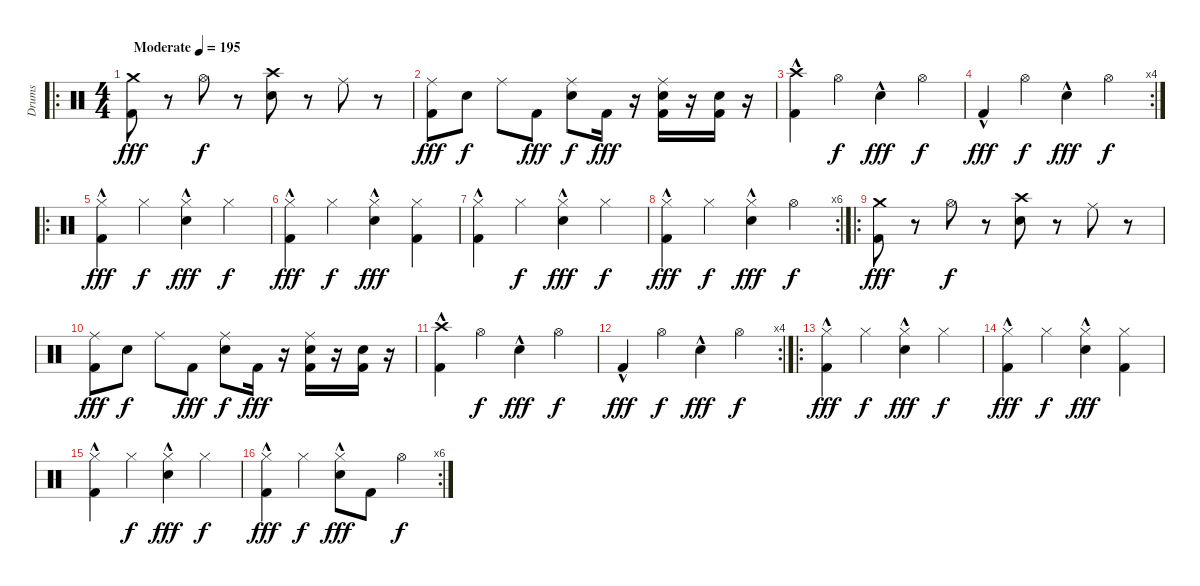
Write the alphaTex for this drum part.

\track ("Drums" "Drums") {instrument percussion}
\staff {score}
\articulation defaults
\ro
\ts (4 4)
\tempo (195 "Moderate")
\clef neutral
\ks c
("Crash medium (hit)" "Kick (hit) 2").8{dy fff} r.8 "Hi-Hat (open)".8{dy f} r.8 ("Crash high (hit)" "Electric Snare (hit)").8 r.8 "Ride (middle)".8 r.8 |
("Ride (middle)" "Kick (hit) 2").8{dy fff} "Electric Snare (hit)".8{dy f} "Ride (middle)".8 "Kick (hit) 2".8{dy fff} ("Ride (middle)" "Electric Snare (hit)").8{dy f} "Kick (hit) 2".16{dy fff} r.16 ("Ride (middle)" "Electric Snare (hit)" "Kick (hit) 2").16 r.16 ("Electric Snare (hit)" "Kick (hit) 2").16 r.16 |
("Crash high (hit)" "Kick (hit) 2"{hac}).4 "Hi-Hat (open)".4{dy f} "Electric Snare (hit)"{hac}.4{dy fff} "Hi-Hat (open)".4{dy f} |
\rc 4 "Kick (hit) 2"{hac}.4{dy fff} "Hi-Hat (open)".4{dy f} "Electric Snare (hit)"{hac}.4{dy fff} "Hi-Hat (open)".4{dy f}
|
\ro
("Hi-Hat (closed)" "Kick (hit) 2"{hac}).4{dy fff} "Hi-Hat (closed)".4{dy f} ("Hi-Hat (closed)" "Electric Snare (hit)"{hac}).4{dy fff} "Hi-Hat (closed)".4{dy f} |
("Hi-Hat (closed)" "Kick (hit) 2"{hac}).4{dy fff} "Hi-Hat (closed)".4{dy f} ("Hi-Hat (closed)" "Electric Snare (hit)"{hac}).4{dy fff} ("Hi-Hat (closed)" "Kick (hit) 2").4 |
("Hi-Hat (closed)" "Kick (hit) 2"{hac}).4 "Hi-Hat (closed)".4{dy f} ("Hi-Hat (closed)" "Electric Snare (hit)"{hac}).4{dy fff} "Hi-Hat (closed)".4{dy f} |
\rc 6
("Hi-Hat (closed)" "Kick (hit) 2"{hac}).4{dy fff} "Hi-Hat (closed)".4{dy f} ("Hi-Hat (closed)" "Electric Snare (hit)"{hac}).4{dy fff} "Hi-Hat (open)".4{dy f} |
\ro
("Crash medium (hit)" "Kick (hit) 2").8{dy fff} r.8 "Hi-Hat (open)".8{dy f} r.8 ("Crash high (hit)" "Electric Snare (hit)").8 r.8 "Ride (middle)".8 r.8 |
("Ride (middle)" "Kick (hit) 2").8{dy fff} "Electric Snare (hit)".8{dy f} "Ride (middle)".8 "Kick (hit) 2".8{dy fff} ("Ride (middle)" "Electric Snare (hit)").8{dy f} "Kick (hit) 2".16{dy fff} r.16 ("Ride (middle)" "Electric Snare (hit)" "Kick (hit) 2").16 r.16 ("Electric Snare (hit)" "Kick (hit) 2").16 r.16 |
("Crash high (hit)" "Kick (hit) 2"{hac}).4 "Hi-Hat (open)".4{dy f} "Electric Snare (hit)"{hac}.4{dy fff} "Hi-Hat (open)".4{dy f} |
\rc 4 "Kick (hit) 2"{hac}.4{dy fff} "Hi-Hat (open)".4{dy f} "Electric Snare (hit)"{hac}.4{dy fff} "Hi-Hat (open)".4{dy f}
|
\ro
("Hi-Hat (closed)" "Kick (hit) 2"{hac}).4{dy fff} "Hi-Hat (closed)".4{dy f} ("Hi-Hat (closed)" "Electric Snare (hit)"{hac}).4{dy fff} "Hi-Hat (closed)".4{dy f} |
("Hi-Hat (closed)" "Kick (hit) 2"{hac}).4{dy fff} "Hi-Hat (closed)".4{dy f} ("Hi-Hat (closed)" "Electric Snare (hit)"{hac}).4{dy fff} ("Hi-Hat (closed)" "Kick (hit) 2").4 |
("Hi-Hat (closed)" "Kick (hit) 2"{hac}).4 "Hi-Hat (closed)".4{dy f} ("Hi-Hat (closed)" "Electric Snare (hit)"{hac}).4{dy fff} "Hi-Hat (closed)".4{dy f} |
\rc 6
("Hi-Hat (closed)" "Kick (hit) 2"{hac}).4{dy fff} "Hi-Hat (closed)".4{dy f} ("Hi-Hat (closed)" "Electric Snare (hit)"{hac}).8{dy fff} "Kick (hit) 2".8 "Hi-Hat (open)".4{dy f}
